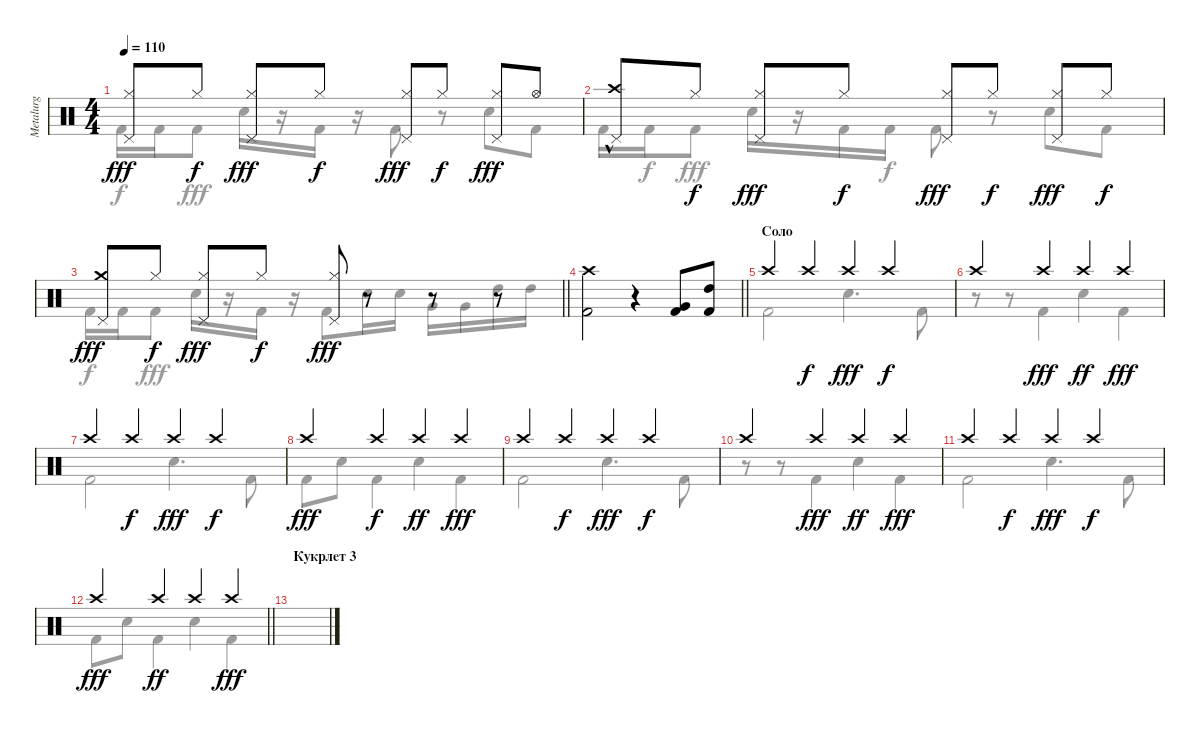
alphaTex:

\track ("Metalurg" "Metalurg") {instrument percussion}
\staff {score}
\articulation defaults
\voice
\ts (4 4)
\tempo 110
\clef neutral
\ks c
("Hi-Hat (closed)" "Pedal Hi-Hat (hit)").8{dy fff} "Hi-Hat (closed)".8{dy f} ("Hi-Hat (closed)" "Pedal Hi-Hat (hit)").8{dy fff} "Hi-Hat (closed)".8{dy f} ("Hi-Hat (closed)" "Pedal Hi-Hat (hit)").8{dy fff} "Hi-Hat (closed)".8{dy f} ("Hi-Hat (closed)" "Pedal Hi-Hat (hit)").8{dy fff} "Hi-Hat (open)".8 |
("Crash high (hit)"{hac} "Pedal Hi-Hat (hit)").8 "Hi-Hat (closed)".8{dy f} ("Hi-Hat (closed)" "Pedal Hi-Hat (hit)").8{dy fff} "Hi-Hat (closed)".8{dy f} ("Hi-Hat (closed)" "Pedal Hi-Hat (hit)").8{dy fff} "Hi-Hat (closed)".8{dy f} ("Hi-Hat (closed)" "Pedal Hi-Hat (hit)").8{dy fff} "Hi-Hat (closed)".8{dy f} |
\barLineRight lightlight
("Crash medium (hit)" "Pedal Hi-Hat (hit)").8{dy fff} "Hi-Hat (closed)".8{dy f} ("Hi-Hat (closed)" "Pedal Hi-Hat (hit)").8{dy fff} "Hi-Hat (closed)".8{dy f} ("Hi-Hat (closed)" "Pedal Hi-Hat (hit)").8{dy fff} r.8 r.8 r.8 |
\barLineRight lightlight
("Crash high (hit)" "Kick (hit) 2").2 r.4 ("Very Low Tom (hit)" "Kick (hit) 2").8 ("High Tom (hit)" "Kick (hit) 2").8 |
\section ("" "Соло")
"Crash high (hit)".4 "Crash high (hit)".4{dy f} "Crash high (hit)".4{dy fff} "Crash high (hit)".4{dy f} |
"Crash high (hit)".4 "Crash high (hit)".4{dy fff} "Crash high (hit)".4{dy ff} "Crash high (hit)".4{dy fff} |
"Crash high (hit)".4 "Crash high (hit)".4{dy f} "Crash high (hit)".4{dy fff} "Crash high (hit)".4{dy f} |
"Crash high (hit)".4{dy fff} "Crash high (hit)".4{dy f} "Crash high (hit)".4{dy ff} "Crash high (hit)".4{dy fff} |
"Crash high (hit)".4 "Crash high (hit)".4{dy f} "Crash high (hit)".4{dy fff} "Crash high (hit)".4{dy f} |
"Crash high (hit)".4 "Crash high (hit)".4{dy fff} "Crash high (hit)".4{dy ff} "Crash high (hit)".4{dy fff} |
"Crash high (hit)".4 "Crash high (hit)".4{dy f} "Crash high (hit)".4{dy fff} "Crash high (hit)".4{dy f} |
\barLineRight lightlight "Crash high (hit)".4{dy fff} "Crash high (hit)".4{dy ff} "Crash high (hit)".4 "Crash high (hit)".4{dy fff}
|
\section ("" "Кукрлет 3")
|
|
|
\voice
\clef neutral
\ottava regular
\simile none
\ks c "Kick (hit) 2".16{dy f} "Kick (hit) 2".16 "Kick (hit) 2".8{dy fff} "Snare (hit) 2".16
r.16 "Kick (hit) 2".16 r.16 "Kick (hit) 2".8 r.8 "Snare (hit) 2".8 "Kick (hit) 2".8 |
"Kick (hit) 2".16 "Kick (hit) 2".16{dy f} "Kick (hit) 2".8{dy fff} "Snare (hit) 2".16 r.16 "Kick (hit) 2".16 "Kick (hit) 2".16{dy f} "Kick (hit) 2".8{dy fff} r.8 "Snare (hit) 2".8 "Kick (hit) 2".8 |
\barLineRight lightlight "Kick (hit) 2".16{dy f} "Kick (hit) 2".16 "Kick (hit) 2".8{dy fff} "Snare (hit) 2".16
r.16 "Kick (hit) 2".16 r.16 "Kick (hit) 2".8 "Snare (hit) 2".16 "Snare (hit) 2".16 "Very Low Tom (hit)".16 "Very Low Tom (hit)".16 "High Tom (hit)".16 "High Tom (hit)".16 |
\barLineRight lightlight
|
"Kick (hit) 2".2 "Snare (hit) 2".4{d} "Kick (hit) 2".8 |
r.8 r.8 "Kick (hit) 2".4 "Snare (hit) 2".4 "Kick (hit) 2".4 |
"Kick (hit) 2".2 "Snare (hit) 2".4{d} "Kick (hit) 2".8 |
"Kick (hit) 2".8 "Snare (hit) 2".8 "Kick (hit) 2".4 "Snare (hit) 2".4 "Kick (hit) 2".4 |
"Kick (hit) 2".2 "Snare (hit) 2".4{d} "Kick (hit) 2".8 |
r.8 r.8 "Kick (hit) 2".4 "Snare (hit) 2".4 "Kick (hit) 2".4 |
"Kick (hit) 2".2 "Snare (hit) 2".4{d} "Kick (hit) 2".8 |
\barLineRight lightlight "Kick (hit) 2".8 "Snare (hit) 2".8 "Kick (hit) 2".4 "Snare (hit) 2".4 "Kick (hit) 2".4
|
|
|
|
